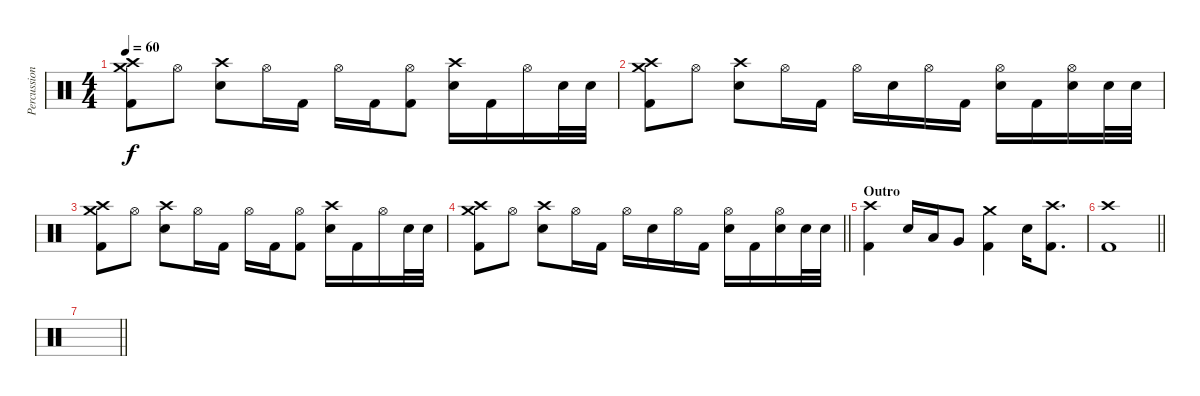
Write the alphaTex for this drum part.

\track ("Percussion" "Percussion") {instrument percussion}
\staff {score}
\articulation defaults
\ts (4 4)
\tempo 60
\clef neutral
\ks c
("Crash medium (hit)" "Crash high (hit)" "Kick (hit) 2").8{dy f} "Hi-Hat (open)".8 ("Crash high (hit)" "Electric Snare (hit)").8 "Hi-Hat (open)".16 "Kick (hit) 2".16 "Hi-Hat (open)".16 "Kick (hit) 2".16 ("Hi-Hat (open)" "Kick (hit) 2").8 ("Crash high (hit)" "Electric Snare (hit)").16 "Kick (hit) 2".16 "Hi-Hat (open)".16 "Electric Snare (hit)".32 "Electric Snare (hit)".32 |
("Crash medium (hit)" "Crash high (hit)" "Kick (hit) 2").8 "Hi-Hat (open)".8 ("Crash high (hit)" "Electric Snare (hit)").8 "Hi-Hat (open)".16 "Kick (hit) 2".16 "Hi-Hat (open)".16 "Electric Snare (hit)".16 "Hi-Hat (open)".16 "Kick (hit) 2".16 ("Hi-Hat (open)" "Electric Snare (hit)").16 "Kick (hit) 2".16 ("Hi-Hat (open)" "Electric Snare (hit)").16 "Electric Snare (hit)".32 "Electric Snare (hit)".32 |
("Crash medium (hit)" "Crash high (hit)" "Kick (hit) 2").8 "Hi-Hat (open)".8 ("Crash high (hit)" "Electric Snare (hit)").8 "Hi-Hat (open)".16 "Kick (hit) 2".16 "Hi-Hat (open)".16 "Kick (hit) 2".16 ("Hi-Hat (open)" "Kick (hit) 2").8 ("Crash high (hit)" "Electric Snare (hit)").16 "Kick (hit) 2".16 "Hi-Hat (open)".16 "Electric Snare (hit)".32 "Electric Snare (hit)".32 |
\barLineRight lightlight
("Crash medium (hit)" "Crash high (hit)" "Kick (hit) 2").8 "Hi-Hat (open)".8 ("Crash high (hit)" "Electric Snare (hit)").8 "Hi-Hat (open)".16 "Kick (hit) 2".16 "Hi-Hat (open)".16 "Electric Snare (hit)".16 "Hi-Hat (open)".16 "Kick (hit) 2".16 ("Hi-Hat (open)" "Electric Snare (hit)").16 "Kick (hit) 2".16 ("Hi-Hat (open)" "Electric Snare (hit)").16 "Electric Snare (hit)".32 "Electric Snare (hit)".32 |
\section ("" "Outro")
("Crash high (hit)" "Kick (hit) 2").4 "Electric Snare (hit)".16 "Low Tom (hit)".16 "Very Low Tom (hit)".8 ("Crash medium (hit)" "Kick (hit) 2").4 "Electric Snare (hit)".16 ("Crash high (hit)" "Kick (hit) 2").8{d} |
\barLineRight lightlight
("Crash high (hit)" "Kick (hit) 2").1 |
\barLineRight lightlight
